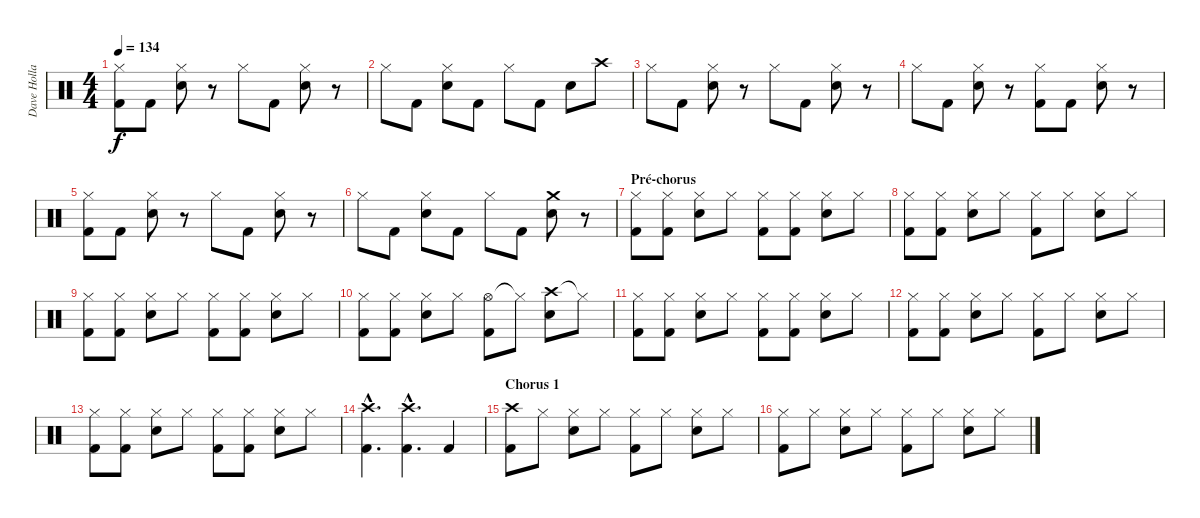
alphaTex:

\track ("Dave Holland" "Dave Holla") {instrument percussion}
\staff {score}
\articulation defaults
\ts (4 4)
\tempo 134
\clef neutral
\ks c
("Hi-Hat (closed)" "Kick (hit) 2").8{dy f} "Kick (hit) 2".8 ("Hi-Hat (closed)" "Snare (hit) 2").8 r.8 "Hi-Hat (closed)".8 "Kick (hit) 2".8 ("Hi-Hat (closed)" "Snare (hit) 2").8 r.8 |
"Hi-Hat (closed)".8 "Kick (hit) 2".8 ("Hi-Hat (closed)" "Snare (hit) 2").8 "Kick (hit) 2".8 "Hi-Hat (closed)".8 "Kick (hit) 2".8 "Snare (hit) 2".8 "Crash high (hit)".8 |
"Hi-Hat (closed)".8 "Kick (hit) 2".8 ("Hi-Hat (closed)" "Snare (hit) 2").8 r.8 "Hi-Hat (closed)".8 "Kick (hit) 2".8 ("Hi-Hat (closed)" "Snare (hit) 2").8 r.8 |
"Hi-Hat (closed)".8 "Kick (hit) 2".8 ("Hi-Hat (closed)" "Snare (hit) 2").8 r.8 ("Hi-Hat (closed)" "Kick (hit) 2").8 "Kick (hit) 2".8 ("Hi-Hat (closed)" "Snare (hit) 2").8 r.8 |
("Hi-Hat (closed)" "Kick (hit) 2").8 "Kick (hit) 2".8 ("Hi-Hat (closed)" "Snare (hit) 2").8 r.8 "Hi-Hat (closed)".8 "Kick (hit) 2".8 ("Hi-Hat (closed)" "Snare (hit) 2").8 r.8 |
"Hi-Hat (closed)".8 "Kick (hit) 2".8 ("Hi-Hat (closed)" "Snare (hit) 2").8 "Kick (hit) 2".8 "Hi-Hat (closed)".8 "Kick (hit) 2".8 ("Crash medium (hit)" "Snare (hit) 2").8 r.8 |
\section ("" "Pré-chorus")
("Hi-Hat (closed)" "Kick (hit) 2").8 ("Hi-Hat (closed)" "Kick (hit) 2").8 ("Hi-Hat (closed)" "Snare (hit) 2").8 "Hi-Hat (closed)".8 ("Hi-Hat (closed)" "Kick (hit) 2").8 ("Hi-Hat (closed)" "Kick (hit) 2").8 ("Hi-Hat (closed)" "Snare (hit) 2").8 "Hi-Hat (closed)".8 |
("Hi-Hat (closed)" "Kick (hit) 2").8 ("Hi-Hat (closed)" "Kick (hit) 2").8 ("Hi-Hat (closed)" "Snare (hit) 2").8 "Hi-Hat (closed)".8 ("Hi-Hat (closed)" "Kick (hit) 2").8 "Hi-Hat (closed)".8 ("Hi-Hat (closed)" "Snare (hit) 2").8 "Hi-Hat (closed)".8 |
("Hi-Hat (closed)" "Kick (hit) 2").8 ("Hi-Hat (closed)" "Kick (hit) 2").8 ("Hi-Hat (closed)" "Snare (hit) 2").8 "Hi-Hat (closed)".8 ("Hi-Hat (closed)" "Kick (hit) 2").8 ("Hi-Hat (closed)" "Kick (hit) 2").8 ("Hi-Hat (closed)" "Snare (hit) 2").8 "Hi-Hat (closed)".8 |
("Hi-Hat (closed)" "Kick (hit) 2").8 ("Hi-Hat (closed)" "Kick (hit) 2").8 ("Hi-Hat (closed)" "Snare (hit) 2").8 "Hi-Hat (closed)".8 ("Hi-Hat (open)" "Kick (hit) 2").8 "Hi-Hat (closed)"{t}.8 ("Crash high (hit)" "Snare (hit) 2").8 "Hi-Hat (closed)"{t}.8 |
("Hi-Hat (closed)" "Kick (hit) 2").8 ("Hi-Hat (closed)" "Kick (hit) 2").8 ("Hi-Hat (closed)" "Snare (hit) 2").8 "Hi-Hat (closed)".8 ("Hi-Hat (closed)" "Kick (hit) 2").8 ("Hi-Hat (closed)" "Kick (hit) 2").8 ("Hi-Hat (closed)" "Snare (hit) 2").8 "Hi-Hat (closed)".8 |
("Hi-Hat (closed)" "Kick (hit) 2").8 ("Hi-Hat (closed)" "Kick (hit) 2").8 ("Hi-Hat (closed)" "Snare (hit) 2").8 "Hi-Hat (closed)".8 ("Hi-Hat (closed)" "Kick (hit) 2").8 "Hi-Hat (closed)".8 ("Hi-Hat (closed)" "Snare (hit) 2").8 "Hi-Hat (closed)".8 |
("Hi-Hat (closed)" "Kick (hit) 2").8 ("Hi-Hat (closed)" "Kick (hit) 2").8 ("Hi-Hat (closed)" "Snare (hit) 2").8 "Hi-Hat (closed)".8 ("Hi-Hat (closed)" "Kick (hit) 2").8 ("Hi-Hat (closed)" "Kick (hit) 2").8 ("Hi-Hat (closed)" "Snare (hit) 2").8 "Hi-Hat (closed)".8 |
("Crash high (hit)"{hac} "Kick (hit) 2"{hac}).4{d} ("Crash high (hit)"{hac} "Kick (hit) 2"{hac}).4{d} "Kick (hit) 2".4 |
\section ("" "Chorus 1")
("Crash high (hit)" "Kick (hit) 2").8 "Hi-Hat (closed)".8 ("Hi-Hat (closed)" "Snare (hit) 2").8 "Hi-Hat (closed)".8 ("Hi-Hat (closed)" "Kick (hit) 2").8 "Hi-Hat (closed)".8 ("Hi-Hat (closed)" "Snare (hit) 2").8 "Hi-Hat (closed)".8 |
("Hi-Hat (closed)" "Kick (hit) 2").8 "Hi-Hat (closed)".8 ("Hi-Hat (closed)" "Snare (hit) 2").8 "Hi-Hat (closed)".8 ("Hi-Hat (closed)" "Kick (hit) 2").8 "Hi-Hat (closed)".8 ("Hi-Hat (closed)" "Snare (hit) 2").8 "Hi-Hat (closed)".8
